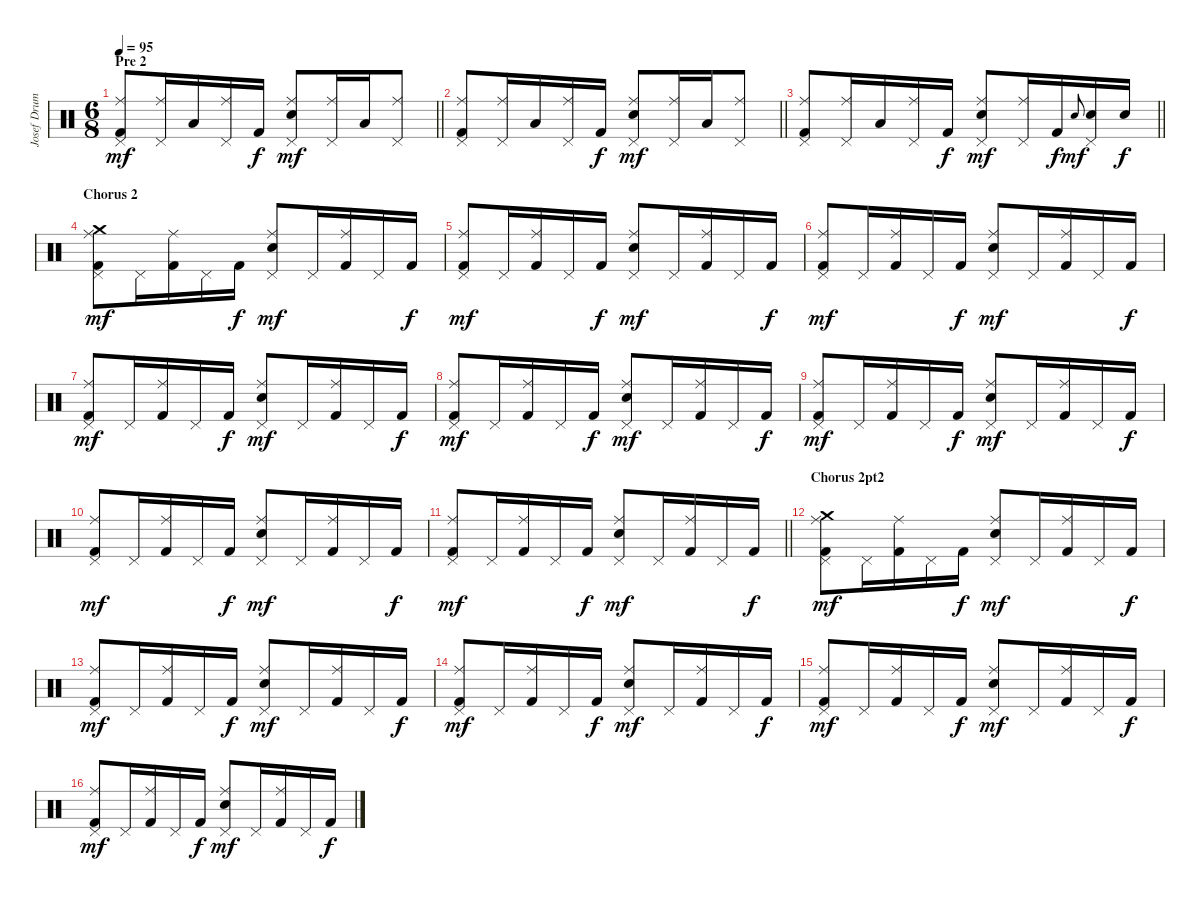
\track ("Josef Drums" "Josef Drum") {instrument percussion}
\staff {score}
\articulation defaults
\ts (6 8)
\section ("" "Pre 2")
\tempo 95
\clef neutral
\barLineRight lightlight
\ks c
("Ride (middle)" "Kick (hit) 2" "Pedal Hi-Hat (hit)").8{dy mf} ("Ride (middle)" "Pedal Hi-Hat (hit)").16 "Low Tom (hit)".16 ("Ride (middle)" "Pedal Hi-Hat (hit)").16 "Kick (hit) 2".16{dy f} ("Ride (middle)" "Electric Snare (hit)" "Pedal Hi-Hat (hit)").8{dy mf} ("Ride (middle)" "Pedal Hi-Hat (hit)").16 "Low Tom (hit)".16 ("Ride (middle)" "Pedal Hi-Hat (hit)").8 |
\barLineRight lightlight
("Ride (middle)" "Kick (hit) 2" "Pedal Hi-Hat (hit)").8 ("Ride (middle)" "Pedal Hi-Hat (hit)").16 "Low Tom (hit)".16 ("Ride (middle)" "Pedal Hi-Hat (hit)").16 "Kick (hit) 2".16{dy f} ("Ride (middle)" "Electric Snare (hit)" "Pedal Hi-Hat (hit)").8{dy mf} ("Ride (middle)" "Pedal Hi-Hat (hit)").16 "Low Tom (hit)".16 ("Ride (middle)" "Pedal Hi-Hat (hit)").8 |
\barLineRight lightlight
("Ride (middle)" "Kick (hit) 2" "Pedal Hi-Hat (hit)").8 ("Ride (middle)" "Pedal Hi-Hat (hit)").16 "Low Tom (hit)".16 ("Ride (middle)" "Pedal Hi-Hat (hit)").16 "Kick (hit) 2".16{dy f} ("Ride (middle)" "Electric Snare (hit)" "Pedal Hi-Hat (hit)").8{dy mf} ("Ride (middle)" "Pedal Hi-Hat (hit)").16 "Kick (hit) 2".16{dy f} "Electric Snare (hit)".8{gr onbeat dy mf} ("Electric Snare (hit)" "Pedal Hi-Hat (hit)").16 "Electric Snare (hit)".16{dy f} |
\section ("" "Chorus 2")
("Crash medium (hit)" "Ride (middle)" "Kick (hit) 2" "Pedal Hi-Hat (hit)").8{dy mf} "Pedal Hi-Hat (hit)".16 ("Ride (middle)" "Kick (hit) 2").16 "Pedal Hi-Hat (hit)".16 "Kick (hit) 2".16{dy f} ("Ride (middle)" "Electric Snare (hit)" "Pedal Hi-Hat (hit)").8{dy mf} "Pedal Hi-Hat (hit)".16 ("Ride (middle)" "Kick (hit) 2").16 "Pedal Hi-Hat (hit)".16 "Kick (hit) 2".16{dy f} |
("Ride (middle)" "Kick (hit) 2" "Pedal Hi-Hat (hit)").8{dy mf} "Pedal Hi-Hat (hit)".16 ("Ride (middle)" "Kick (hit) 2").16 "Pedal Hi-Hat (hit)".16 "Kick (hit) 2".16{dy f} ("Ride (middle)" "Electric Snare (hit)" "Pedal Hi-Hat (hit)").8{dy mf} "Pedal Hi-Hat (hit)".16 ("Ride (middle)" "Kick (hit) 2").16 "Pedal Hi-Hat (hit)".16 "Kick (hit) 2".16{dy f} |
("Ride (middle)" "Kick (hit) 2" "Pedal Hi-Hat (hit)").8{dy mf} "Pedal Hi-Hat (hit)".16 ("Ride (middle)" "Kick (hit) 2").16 "Pedal Hi-Hat (hit)".16 "Kick (hit) 2".16{dy f} ("Ride (middle)" "Electric Snare (hit)" "Pedal Hi-Hat (hit)").8{dy mf} "Pedal Hi-Hat (hit)".16 ("Ride (middle)" "Kick (hit) 2").16 "Pedal Hi-Hat (hit)".16 "Kick (hit) 2".16{dy f} |
("Ride (middle)" "Kick (hit) 2" "Pedal Hi-Hat (hit)").8{dy mf} "Pedal Hi-Hat (hit)".16 ("Ride (middle)" "Kick (hit) 2").16 "Pedal Hi-Hat (hit)".16 "Kick (hit) 2".16{dy f} ("Ride (middle)" "Electric Snare (hit)" "Pedal Hi-Hat (hit)").8{dy mf} "Pedal Hi-Hat (hit)".16 ("Ride (middle)" "Kick (hit) 2").16 "Pedal Hi-Hat (hit)".16 "Kick (hit) 2".16{dy f} |
("Ride (middle)" "Kick (hit) 2" "Pedal Hi-Hat (hit)").8{dy mf} "Pedal Hi-Hat (hit)".16 ("Ride (middle)" "Kick (hit) 2").16 "Pedal Hi-Hat (hit)".16 "Kick (hit) 2".16{dy f} ("Ride (middle)" "Electric Snare (hit)" "Pedal Hi-Hat (hit)").8{dy mf} "Pedal Hi-Hat (hit)".16 ("Ride (middle)" "Kick (hit) 2").16 "Pedal Hi-Hat (hit)".16 "Kick (hit) 2".16{dy f} |
("Ride (middle)" "Kick (hit) 2" "Pedal Hi-Hat (hit)").8{dy mf} "Pedal Hi-Hat (hit)".16 ("Ride (middle)" "Kick (hit) 2").16 "Pedal Hi-Hat (hit)".16 "Kick (hit) 2".16{dy f} ("Ride (middle)" "Electric Snare (hit)" "Pedal Hi-Hat (hit)").8{dy mf} "Pedal Hi-Hat (hit)".16 ("Ride (middle)" "Kick (hit) 2").16 "Pedal Hi-Hat (hit)".16 "Kick (hit) 2".16{dy f} |
("Ride (middle)" "Kick (hit) 2" "Pedal Hi-Hat (hit)").8{dy mf} "Pedal Hi-Hat (hit)".16 ("Ride (middle)" "Kick (hit) 2").16 "Pedal Hi-Hat (hit)".16 "Kick (hit) 2".16{dy f} ("Ride (middle)" "Electric Snare (hit)" "Pedal Hi-Hat (hit)").8{dy mf} "Pedal Hi-Hat (hit)".16 ("Ride (middle)" "Kick (hit) 2").16 "Pedal Hi-Hat (hit)".16 "Kick (hit) 2".16{dy f} |
\barLineRight lightlight
("Ride (middle)" "Kick (hit) 2" "Pedal Hi-Hat (hit)").8{dy mf} "Pedal Hi-Hat (hit)".16 ("Ride (middle)" "Kick (hit) 2").16 "Pedal Hi-Hat (hit)".16 "Kick (hit) 2".16{dy f} ("Ride (middle)" "Electric Snare (hit)" "Pedal Hi-Hat (hit)").8{dy mf} "Pedal Hi-Hat (hit)".16 ("Ride (middle)" "Kick (hit) 2").16 "Pedal Hi-Hat (hit)".16 "Kick (hit) 2".16{dy f} |
\section ("" "Chorus 2pt2")
("Crash medium (hit)" "Ride (middle)" "Kick (hit) 2" "Pedal Hi-Hat (hit)").8{dy mf} "Pedal Hi-Hat (hit)".16 ("Ride (middle)" "Kick (hit) 2").16 "Pedal Hi-Hat (hit)".16 "Kick (hit) 2".16{dy f} ("Ride (middle)" "Electric Snare (hit)" "Pedal Hi-Hat (hit)").8{dy mf} "Pedal Hi-Hat (hit)".16 ("Ride (middle)" "Kick (hit) 2").16 "Pedal Hi-Hat (hit)".16 "Kick (hit) 2".16{dy f} |
("Ride (middle)" "Kick (hit) 2" "Pedal Hi-Hat (hit)").8{dy mf} "Pedal Hi-Hat (hit)".16 ("Ride (middle)" "Kick (hit) 2").16 "Pedal Hi-Hat (hit)".16 "Kick (hit) 2".16{dy f} ("Ride (middle)" "Electric Snare (hit)" "Pedal Hi-Hat (hit)").8{dy mf} "Pedal Hi-Hat (hit)".16 ("Ride (middle)" "Kick (hit) 2").16 "Pedal Hi-Hat (hit)".16 "Kick (hit) 2".16{dy f} |
("Ride (middle)" "Kick (hit) 2" "Pedal Hi-Hat (hit)").8{dy mf} "Pedal Hi-Hat (hit)".16 ("Ride (middle)" "Kick (hit) 2").16 "Pedal Hi-Hat (hit)".16 "Kick (hit) 2".16{dy f} ("Ride (middle)" "Electric Snare (hit)" "Pedal Hi-Hat (hit)").8{dy mf} "Pedal Hi-Hat (hit)".16 ("Ride (middle)" "Kick (hit) 2").16 "Pedal Hi-Hat (hit)".16 "Kick (hit) 2".16{dy f} |
("Ride (middle)" "Kick (hit) 2" "Pedal Hi-Hat (hit)").8{dy mf} "Pedal Hi-Hat (hit)".16 ("Ride (middle)" "Kick (hit) 2").16 "Pedal Hi-Hat (hit)".16 "Kick (hit) 2".16{dy f} ("Ride (middle)" "Electric Snare (hit)" "Pedal Hi-Hat (hit)").8{dy mf} "Pedal Hi-Hat (hit)".16 ("Ride (middle)" "Kick (hit) 2").16 "Pedal Hi-Hat (hit)".16 "Kick (hit) 2".16{dy f} |
("Ride (middle)" "Kick (hit) 2" "Pedal Hi-Hat (hit)").8{dy mf} "Pedal Hi-Hat (hit)".16 ("Ride (middle)" "Kick (hit) 2").16 "Pedal Hi-Hat (hit)".16 "Kick (hit) 2".16{dy f} ("Ride (middle)" "Electric Snare (hit)" "Pedal Hi-Hat (hit)").8{dy mf} "Pedal Hi-Hat (hit)".16 ("Ride (middle)" "Kick (hit) 2").16 "Pedal Hi-Hat (hit)".16 "Kick (hit) 2".16{dy f}
